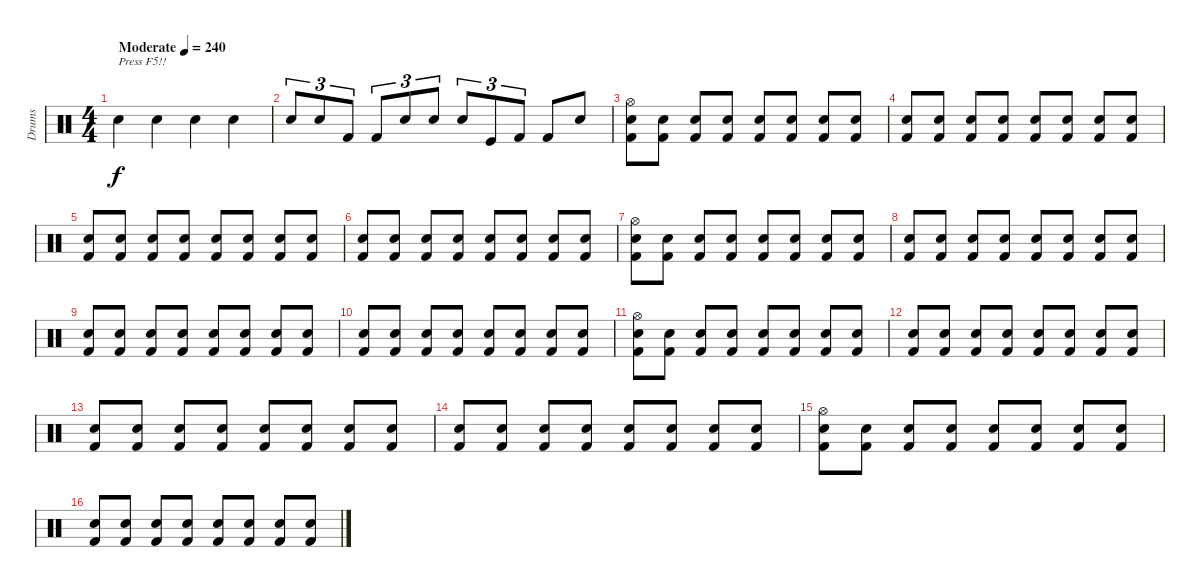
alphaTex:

\track ("Drums" "Drums") {instrument percussion}
\staff {score}
\articulation defaults
\ts (4 4)
\tempo (240 "Moderate")
\clef neutral
\ks c "Snare (hit) 2".4{txt "Press F5!!" dy f} "Snare (hit) 2".4 "Snare (hit) 2".4 "Snare (hit) 2".4
|
"Snare (hit) 2".8{tu (3 2)} "Snare (hit) 2".8{tu (3 2)} "Kick (hit) 2".8{tu (3 2)} "Kick (hit) 2".8{tu (3 2)} "Snare (hit) 2".8{tu (3 2)} "Snare (hit) 2".8{tu (3 2)} "Snare (hit) 2".8{tu (3 2)} "Kick (hit)".8{tu (3 2)} "Kick (hit) 2".8{tu (3 2)} "Kick (hit) 2".8 "Snare (hit) 2".8 |
("Hi-Hat (open)" "Snare (hit) 2" "Kick (hit) 2").8 ("Snare (hit) 2" "Kick (hit) 2").8 ("Snare (hit) 2" "Kick (hit) 2").8 ("Snare (hit) 2" "Kick (hit) 2").8 ("Snare (hit) 2" "Kick (hit) 2").8 ("Snare (hit) 2" "Kick (hit) 2").8 ("Snare (hit) 2" "Kick (hit) 2").8 ("Snare (hit) 2" "Kick (hit) 2").8 |
("Snare (hit) 2" "Kick (hit) 2").8 ("Snare (hit) 2" "Kick (hit) 2").8 ("Snare (hit) 2" "Kick (hit) 2").8 ("Snare (hit) 2" "Kick (hit) 2").8 ("Snare (hit) 2" "Kick (hit) 2").8 ("Snare (hit) 2" "Kick (hit) 2").8 ("Snare (hit) 2" "Kick (hit) 2").8 ("Snare (hit) 2" "Kick (hit) 2").8 |
("Snare (hit) 2" "Kick (hit) 2").8 ("Snare (hit) 2" "Kick (hit) 2").8 ("Snare (hit) 2" "Kick (hit) 2").8 ("Snare (hit) 2" "Kick (hit) 2").8 ("Snare (hit) 2" "Kick (hit) 2").8 ("Snare (hit) 2" "Kick (hit) 2").8 ("Snare (hit) 2" "Kick (hit) 2").8 ("Snare (hit) 2" "Kick (hit) 2").8 |
("Snare (hit) 2" "Kick (hit) 2").8 ("Snare (hit) 2" "Kick (hit) 2").8 ("Snare (hit) 2" "Kick (hit) 2").8 ("Snare (hit) 2" "Kick (hit) 2").8 ("Snare (hit) 2" "Kick (hit) 2").8 ("Snare (hit) 2" "Kick (hit) 2").8 ("Snare (hit) 2" "Kick (hit) 2").8 ("Snare (hit) 2" "Kick (hit) 2").8 |
("Hi-Hat (open)" "Snare (hit) 2" "Kick (hit) 2").8 ("Snare (hit) 2" "Kick (hit) 2").8 ("Snare (hit) 2" "Kick (hit) 2").8 ("Snare (hit) 2" "Kick (hit) 2").8 ("Snare (hit) 2" "Kick (hit) 2").8 ("Snare (hit) 2" "Kick (hit) 2").8 ("Snare (hit) 2" "Kick (hit) 2").8 ("Snare (hit) 2" "Kick (hit) 2").8 |
("Snare (hit) 2" "Kick (hit) 2").8 ("Snare (hit) 2" "Kick (hit) 2").8 ("Snare (hit) 2" "Kick (hit) 2").8 ("Snare (hit) 2" "Kick (hit) 2").8 ("Snare (hit) 2" "Kick (hit) 2").8 ("Snare (hit) 2" "Kick (hit) 2").8 ("Snare (hit) 2" "Kick (hit) 2").8 ("Snare (hit) 2" "Kick (hit) 2").8 |
("Snare (hit) 2" "Kick (hit) 2").8 ("Snare (hit) 2" "Kick (hit) 2").8 ("Snare (hit) 2" "Kick (hit) 2").8 ("Snare (hit) 2" "Kick (hit) 2").8 ("Snare (hit) 2" "Kick (hit) 2").8 ("Snare (hit) 2" "Kick (hit) 2").8 ("Snare (hit) 2" "Kick (hit) 2").8 ("Snare (hit) 2" "Kick (hit) 2").8 |
("Snare (hit) 2" "Kick (hit) 2").8 ("Snare (hit) 2" "Kick (hit) 2").8 ("Snare (hit) 2" "Kick (hit) 2").8 ("Snare (hit) 2" "Kick (hit) 2").8 ("Snare (hit) 2" "Kick (hit) 2").8 ("Snare (hit) 2" "Kick (hit) 2").8 ("Snare (hit) 2" "Kick (hit) 2").8 ("Snare (hit) 2" "Kick (hit) 2").8 |
("Hi-Hat (open)" "Snare (hit) 2" "Kick (hit) 2").8 ("Snare (hit) 2" "Kick (hit) 2").8 ("Snare (hit) 2" "Kick (hit) 2").8 ("Snare (hit) 2" "Kick (hit) 2").8 ("Snare (hit) 2" "Kick (hit) 2").8 ("Snare (hit) 2" "Kick (hit) 2").8 ("Snare (hit) 2" "Kick (hit) 2").8 ("Snare (hit) 2" "Kick (hit) 2").8 |
("Snare (hit) 2" "Kick (hit) 2").8 ("Snare (hit) 2" "Kick (hit) 2").8 ("Snare (hit) 2" "Kick (hit) 2").8 ("Snare (hit) 2" "Kick (hit) 2").8 ("Snare (hit) 2" "Kick (hit) 2").8 ("Snare (hit) 2" "Kick (hit) 2").8 ("Snare (hit) 2" "Kick (hit) 2").8 ("Snare (hit) 2" "Kick (hit) 2").8 |
("Snare (hit) 2" "Kick (hit) 2").8 ("Snare (hit) 2" "Kick (hit) 2").8 ("Snare (hit) 2" "Kick (hit) 2").8 ("Snare (hit) 2" "Kick (hit) 2").8 ("Snare (hit) 2" "Kick (hit) 2").8 ("Snare (hit) 2" "Kick (hit) 2").8 ("Snare (hit) 2" "Kick (hit) 2").8 ("Snare (hit) 2" "Kick (hit) 2").8 |
("Snare (hit) 2" "Kick (hit) 2").8 ("Snare (hit) 2" "Kick (hit) 2").8 ("Snare (hit) 2" "Kick (hit) 2").8 ("Snare (hit) 2" "Kick (hit) 2").8 ("Snare (hit) 2" "Kick (hit) 2").8 ("Snare (hit) 2" "Kick (hit) 2").8 ("Snare (hit) 2" "Kick (hit) 2").8 ("Snare (hit) 2" "Kick (hit) 2").8 |
("Hi-Hat (open)" "Snare (hit) 2" "Kick (hit) 2").8 ("Snare (hit) 2" "Kick (hit) 2").8 ("Snare (hit) 2" "Kick (hit) 2").8 ("Snare (hit) 2" "Kick (hit) 2").8 ("Snare (hit) 2" "Kick (hit) 2").8 ("Snare (hit) 2" "Kick (hit) 2").8 ("Snare (hit) 2" "Kick (hit) 2").8 ("Snare (hit) 2" "Kick (hit) 2").8 |
("Snare (hit) 2" "Kick (hit) 2").8 ("Snare (hit) 2" "Kick (hit) 2").8 ("Snare (hit) 2" "Kick (hit) 2").8 ("Snare (hit) 2" "Kick (hit) 2").8 ("Snare (hit) 2" "Kick (hit) 2").8 ("Snare (hit) 2" "Kick (hit) 2").8 ("Snare (hit) 2" "Kick (hit) 2").8 ("Snare (hit) 2" "Kick (hit) 2").8
